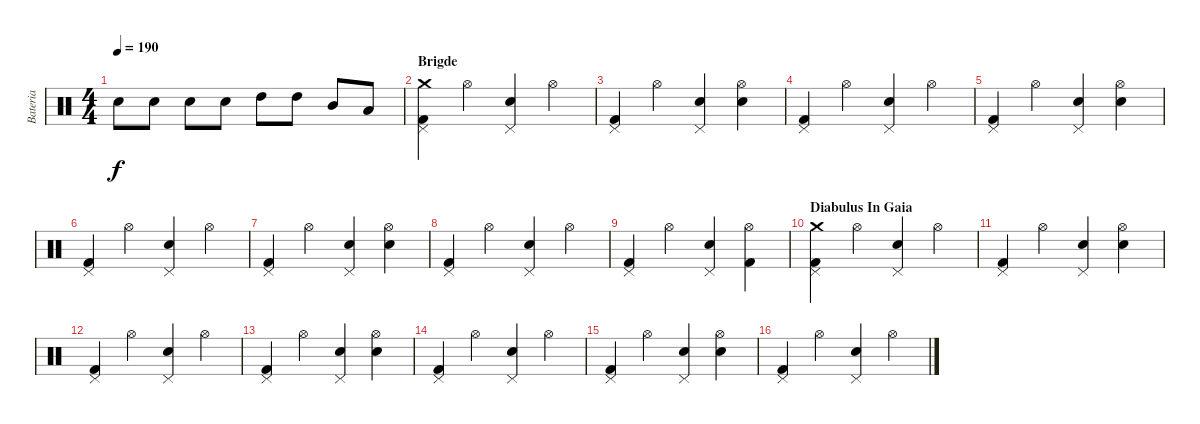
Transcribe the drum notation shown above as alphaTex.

\track ("Bateria" "Bateria") {instrument percussion}
\staff {score}
\articulation defaults
\ts (4 4)
\tempo 190
\clef neutral
\ks c "Snare (hit) 2".8{dy f} "Snare (hit) 2".8 "Snare (hit) 2".8 "Snare (hit) 2".8 "High Tom (hit)".8 "High Tom (hit)".8 "Mid Tom (hit)".8 "Low Tom (hit)".8
|
\section ("" "Brigde")
("Crash medium (hit)" "Kick (hit) 2" "Pedal Hi-Hat (hit)").4 "Hi-Hat (open)".4 ("Pedal Hi-Hat (hit)" "Snare (hit) 2").4 "Hi-Hat (open)".4 |
("Kick (hit) 2" "Pedal Hi-Hat (hit)").4 "Hi-Hat (open)".4 ("Pedal Hi-Hat (hit)" "Snare (hit) 2").4 ("Hi-Hat (open)" "Snare (hit) 2").4 |
("Kick (hit) 2" "Pedal Hi-Hat (hit)").4 "Hi-Hat (open)".4 ("Pedal Hi-Hat (hit)" "Snare (hit) 2").4 "Hi-Hat (open)".4 |
("Kick (hit) 2" "Pedal Hi-Hat (hit)").4 "Hi-Hat (open)".4 ("Pedal Hi-Hat (hit)" "Snare (hit) 2").4 ("Hi-Hat (open)" "Snare (hit) 2").4 |
("Kick (hit) 2" "Pedal Hi-Hat (hit)").4 "Hi-Hat (open)".4 ("Pedal Hi-Hat (hit)" "Snare (hit) 2").4 "Hi-Hat (open)".4 |
("Kick (hit) 2" "Pedal Hi-Hat (hit)").4 "Hi-Hat (open)".4 ("Pedal Hi-Hat (hit)" "Snare (hit) 2").4 ("Hi-Hat (open)" "Snare (hit) 2").4 |
("Kick (hit) 2" "Pedal Hi-Hat (hit)").4 "Hi-Hat (open)".4 ("Pedal Hi-Hat (hit)" "Snare (hit) 2").4 "Hi-Hat (open)".4 |
("Kick (hit) 2" "Pedal Hi-Hat (hit)").4 "Hi-Hat (open)".4 ("Pedal Hi-Hat (hit)" "Snare (hit) 2").4 ("Hi-Hat (open)" "Kick (hit) 2").4 |
\section ("" "Diabulus In Gaia")
("Crash medium (hit)" "Kick (hit) 2" "Pedal Hi-Hat (hit)").4 "Hi-Hat (open)".4 ("Pedal Hi-Hat (hit)" "Snare (hit) 2").4 "Hi-Hat (open)".4 |
("Kick (hit) 2" "Pedal Hi-Hat (hit)").4 "Hi-Hat (open)".4 ("Pedal Hi-Hat (hit)" "Snare (hit) 2").4 ("Hi-Hat (open)" "Snare (hit) 2").4 |
("Kick (hit) 2" "Pedal Hi-Hat (hit)").4 "Hi-Hat (open)".4 ("Pedal Hi-Hat (hit)" "Snare (hit) 2").4 "Hi-Hat (open)".4 |
("Kick (hit) 2" "Pedal Hi-Hat (hit)").4 "Hi-Hat (open)".4 ("Pedal Hi-Hat (hit)" "Snare (hit) 2").4 ("Hi-Hat (open)" "Snare (hit) 2").4 |
("Kick (hit) 2" "Pedal Hi-Hat (hit)").4 "Hi-Hat (open)".4 ("Pedal Hi-Hat (hit)" "Snare (hit) 2").4 "Hi-Hat (open)".4 |
("Kick (hit) 2" "Pedal Hi-Hat (hit)").4 "Hi-Hat (open)".4 ("Pedal Hi-Hat (hit)" "Snare (hit) 2").4 ("Hi-Hat (open)" "Snare (hit) 2").4 |
("Kick (hit) 2" "Pedal Hi-Hat (hit)").4 "Hi-Hat (open)".4 ("Pedal Hi-Hat (hit)" "Snare (hit) 2").4 "Hi-Hat (open)".4
